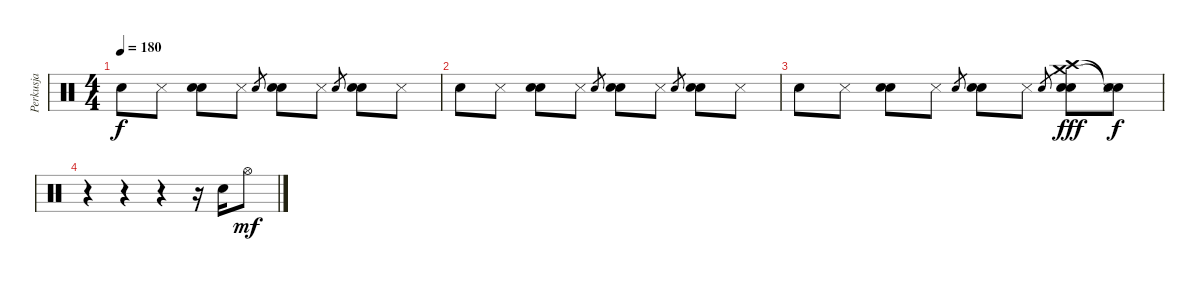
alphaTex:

\track ("Perkusja" "Perkusja") {instrument percussion}
\staff {score}
\articulation defaults
\ts (4 4)
\tempo 180
\clef neutral
\ks c "Snare (hit) 2".8{dy f} "Snare (side stick) 3".8
("Electric Snare (hit)" "Metronome (bell)").8 "Snare (side stick) 3".8 "Snare (hit) 2".8{gr} ("Snare (hit) 2" "Metronome (bell)").8 "Snare (side stick) 3".8 "Electric Snare (hit)".8{gr} ("Electric Snare (hit)" "Metronome (bell)").8 "Snare (side stick) 3".8 |
"Snare (hit) 2".8 "Snare (side stick) 3".8 ("Electric Snare (hit)" "Metronome (bell)").8 "Snare (side stick) 3".8 "Snare (hit) 2".8{gr} ("Snare (hit) 2" "Metronome (bell)").8 "Snare (side stick) 3".8 "Electric Snare (hit)".8{gr} ("Electric Snare (hit)" "Metronome (bell)").8 "Snare (side stick) 3".8 |
"Snare (hit) 2".8 "Snare (side stick) 3".8 ("Electric Snare (hit)" "Metronome (bell)").8 "Snare (side stick) 3".8 "Snare (hit) 2".8{gr} ("Snare (hit) 2" "Metronome (bell)").8 "Snare (side stick) 3".8 "Electric Snare (hit)".8{gr} ("Crash high (hit)" "Crash medium (hit)" "Electric Snare (hit)" "Metronome (bell)").8{dy fff} ("Snare (hit)"{t} "Snare (hit)"{t} "Snare (side stick) 3").8{dy f} |
r.4 r.4 r.4 r.16 "Electric Snare (hit)".16 "Hi-Hat (open)".8{dy mf}
